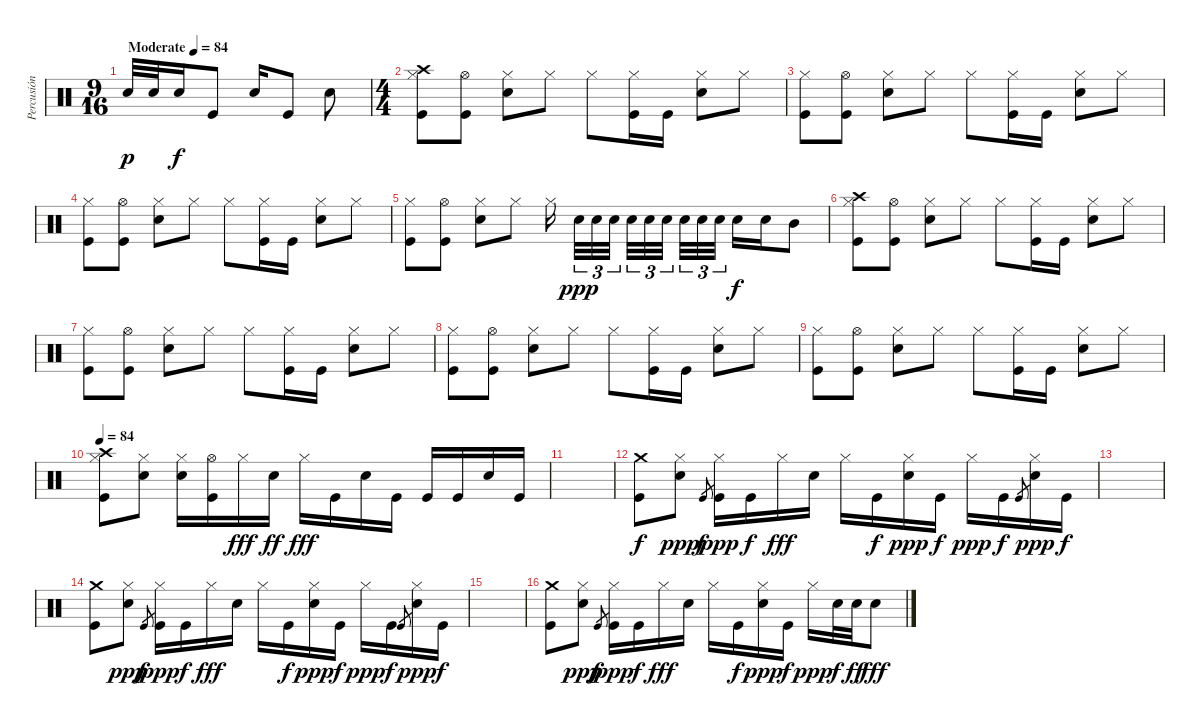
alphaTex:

\track ("Percusión" "Percusión") {instrument percussion}
\staff {score}
\articulation defaults
\ts (9 16)
\tempo (84 "Moderate")
\clef neutral
\ks c "Snare (hit) 2".32{dy p} "Snare (hit) 2".32 "Snare (hit) 2".16{dy f} "Kick (hit)".8 "Snare (hit) 2".16 "Kick (hit)".8 "Snare (hit) 2".8
|
\ts (4 4)
("Kick (hit)" "Hi-Hat (closed)" "Crash high (hit)").8 ("Kick (hit)" "Hi-Hat (open)").8 ("Snare (hit) 2" "Hi-Hat (closed)").8 "Hi-Hat (closed)".8 "Hi-Hat (closed)".8 ("Kick (hit)" "Hi-Hat (closed)").16 "Kick (hit)".16 ("Snare (hit) 2" "Hi-Hat (closed)").8 "Hi-Hat (closed)".8 |
("Kick (hit)" "Hi-Hat (closed)").8 ("Kick (hit)" "Hi-Hat (open)").8 ("Snare (hit) 2" "Hi-Hat (closed)").8 "Hi-Hat (closed)".8 "Hi-Hat (closed)".8 ("Kick (hit)" "Hi-Hat (closed)").16 "Kick (hit)".16 ("Snare (hit) 2" "Hi-Hat (closed)").8 "Hi-Hat (closed)".8 |
("Kick (hit)" "Hi-Hat (closed)").8 ("Kick (hit)" "Hi-Hat (open)").8 ("Snare (hit) 2" "Hi-Hat (closed)").8 "Hi-Hat (closed)".8 "Hi-Hat (closed)".8 ("Kick (hit)" "Hi-Hat (closed)").16 "Kick (hit)".16 ("Snare (hit) 2" "Hi-Hat (closed)").8 "Hi-Hat (closed)".8 |
("Kick (hit)" "Hi-Hat (closed)").8 ("Kick (hit)" "Hi-Hat (open)").8 ("Snare (hit) 2" "Hi-Hat (closed)").8 "Hi-Hat (closed)".8 "Hi-Hat (closed)".16{beam splitsecondary} "Snare (hit) 2".32{tu (3 2) dy ppp} "Snare (hit) 2".32{tu (3 2)} "Snare (hit) 2".32{tu (3 2) beam splitsecondary} "Snare (hit) 2".32{tu (3 2)} "Snare (hit) 2".32{tu (3 2)} "Snare (hit) 2".32{tu (3 2) beam splitsecondary} "Snare (hit) 2".32{tu (3 2)} "Snare (hit) 2".32{tu (3 2)} "Snare (hit) 2".32{tu (3 2)} "Snare (hit) 2".16{dy f} "Snare (hit) 2".16 "Mid Tom (hit)".8 |
("Kick (hit)" "Hi-Hat (closed)" "Crash high (hit)").8 ("Kick (hit)" "Hi-Hat (open)").8 ("Snare (hit) 2" "Hi-Hat (closed)").8 "Hi-Hat (closed)".8 "Hi-Hat (closed)".8 ("Kick (hit)" "Hi-Hat (closed)").16 "Kick (hit)".16 ("Snare (hit) 2" "Hi-Hat (closed)").8 "Hi-Hat (closed)".8 |
("Kick (hit)" "Hi-Hat (closed)").8 ("Kick (hit)" "Hi-Hat (open)").8 ("Snare (hit) 2" "Hi-Hat (closed)").8 "Hi-Hat (closed)".8 "Hi-Hat (closed)".8 ("Kick (hit)" "Hi-Hat (closed)").16 "Kick (hit)".16 ("Snare (hit) 2" "Hi-Hat (closed)").8 "Hi-Hat (closed)".8 |
("Kick (hit)" "Hi-Hat (closed)").8 ("Kick (hit)" "Hi-Hat (open)").8 ("Snare (hit) 2" "Hi-Hat (closed)").8 "Hi-Hat (closed)".8 "Hi-Hat (closed)".8 ("Kick (hit)" "Hi-Hat (closed)").16 "Kick (hit)".16 ("Snare (hit) 2" "Hi-Hat (closed)").8 "Hi-Hat (closed)".8 |
("Kick (hit)" "Hi-Hat (closed)").8 ("Kick (hit)" "Hi-Hat (open)").8 ("Snare (hit) 2" "Hi-Hat (closed)").8 "Hi-Hat (closed)".8 "Hi-Hat (closed)".8 ("Kick (hit)" "Hi-Hat (closed)").16 "Kick (hit)".16 ("Snare (hit) 2" "Hi-Hat (closed)").8 "Hi-Hat (closed)".8 |
\tempo 84
("Kick (hit)" "Hi-Hat (closed)" "Crash high (hit)").8 ("Snare (hit) 2" "Hi-Hat (closed)").8 ("Snare (hit) 2" "Hi-Hat (closed)").16 ("Kick (hit)" "Hi-Hat (open)").16 "Hi-Hat (closed)".16{dy fff} "Snare (hit) 2".16{dy ff} "Hi-Hat (closed)".16{dy fff} "Kick (hit)".16 "Snare (hit) 2".16 "Kick (hit)".16 "Kick (hit)".16 "Kick (hit)".16 "Snare (hit) 2".16 "Kick (hit)".16 |
|
("Kick (hit)" "Crash medium (hit)").8{dy f} ("Snare (hit) 2" "Hi-Hat (closed)").8{dy ppp} "Kick (hit)".8{gr dy f} ("Kick (hit)" "Hi-Hat (closed)").16{dy ppp} "Kick (hit)".16{dy f} "Hi-Hat (closed)".16{dy fff} "Snare (hit) 2".16 "Hi-Hat (closed)".16 "Kick (hit)".16{dy f} ("Snare (hit) 2" "Hi-Hat (closed)").16{dy ppp} "Kick (hit)".16{dy f} "Hi-Hat (closed)".16{dy ppp} "Kick (hit)".16{dy f} "Kick (hit)".8{gr} ("Snare (hit) 2" "Hi-Hat (closed)").16{dy ppp} "Kick (hit)".16{dy f} |
|
("Kick (hit)" "Crash medium (hit)").8 ("Snare (hit) 2" "Hi-Hat (closed)").8{dy ppp} "Kick (hit)".8{gr dy f} ("Kick (hit)" "Hi-Hat (closed)").16{dy ppp} "Kick (hit)".16{dy f} "Hi-Hat (closed)".16{dy fff} "Snare (hit) 2".16 "Hi-Hat (closed)".16 "Kick (hit)".16{dy f} ("Snare (hit) 2" "Hi-Hat (closed)").16{dy ppp} "Kick (hit)".16{dy f} "Hi-Hat (closed)".16{dy ppp} "Kick (hit)".16{dy f} "Kick (hit)".8{gr} ("Snare (hit) 2" "Hi-Hat (closed)").16{dy ppp} "Kick (hit)".16{dy f} |
|
("Kick (hit)" "Crash medium (hit)").8 ("Snare (hit) 2" "Hi-Hat (closed)").8{dy ppp} "Kick (hit)".8{gr dy f} ("Kick (hit)" "Hi-Hat (closed)").16{dy ppp} "Kick (hit)".16{dy f} "Hi-Hat (closed)".16{dy fff} "Snare (hit) 2".16 "Hi-Hat (closed)".16 "Kick (hit)".16{dy f} ("Snare (hit) 2" "Hi-Hat (closed)").16{dy ppp} "Kick (hit)".16{dy f} "Hi-Hat (closed)".16{dy ppp} "Snare (hit) 2".32{dy f} "Snare (hit) 2".32{dy ff} "Snare (hit) 2".8{dy fff}
